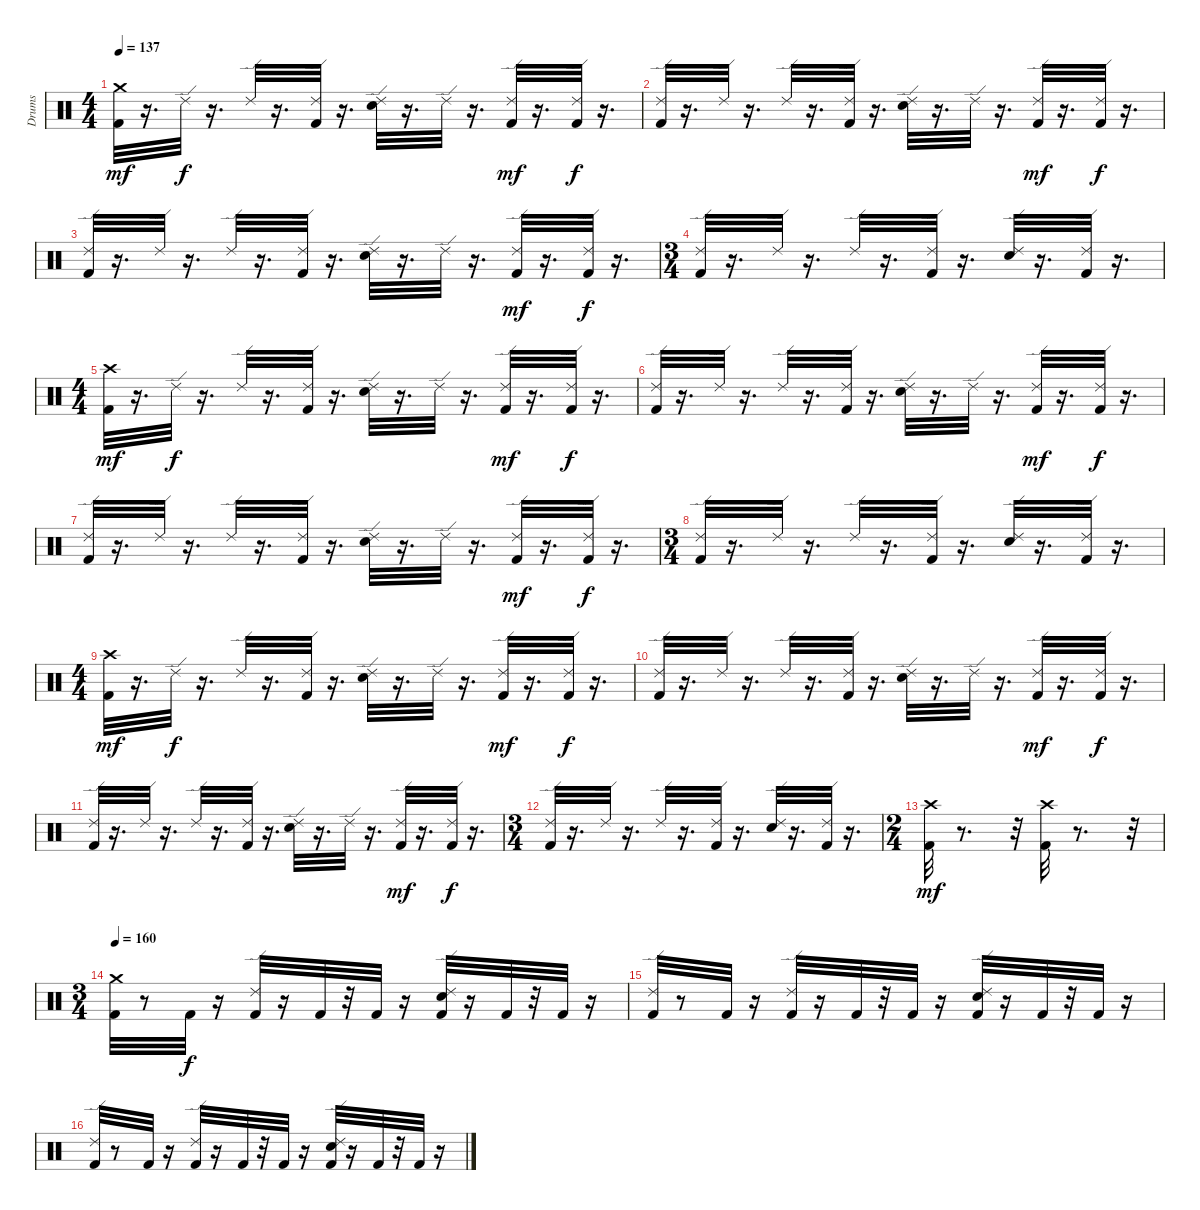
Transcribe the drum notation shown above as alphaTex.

\track ("Drums" "Drums") {instrument percussion}
\staff {score}
\articulation defaults
\ts (4 4)
\tempo 137
\clef neutral
\ks c
("Kick (hit) 2" "Crash medium (hit)").32{dy mf} r.16{d} "Ride (edge) 2".32{dy f} r.16{d} "Ride (edge) 2".32 r.16{d} ("Kick (hit) 2" "Ride (edge) 2").32 r.16{d} ("Snare (hit) 2" "Ride (edge) 2").32 r.16{d} "Ride (edge) 2".32 r.16{d} ("Kick (hit) 2" "Ride (edge) 2").32{dy mf} r.16{d} ("Kick (hit) 2" "Ride (edge) 2").32{dy f} r.16{d} |
("Kick (hit) 2" "Ride (edge) 2").32 r.16{d} "Ride (edge) 2".32 r.16{d} "Ride (edge) 2".32 r.16{d} ("Kick (hit) 2" "Ride (edge) 2").32 r.16{d} ("Snare (hit) 2" "Ride (edge) 2").32 r.16{d} "Ride (edge) 2".32 r.16{d} ("Kick (hit) 2" "Ride (edge) 2").32{dy mf} r.16{d} ("Kick (hit) 2" "Ride (edge) 2").32{dy f} r.16{d} |
("Kick (hit) 2" "Ride (edge) 2").32 r.16{d} "Ride (edge) 2".32 r.16{d} "Ride (edge) 2".32 r.16{d} ("Kick (hit) 2" "Ride (edge) 2").32 r.16{d} ("Snare (hit) 2" "Ride (edge) 2").32 r.16{d} "Ride (edge) 2".32 r.16{d} ("Kick (hit) 2" "Ride (edge) 2").32{dy mf} r.16{d} ("Kick (hit) 2" "Ride (edge) 2").32{dy f} r.16{d} |
\ts (3 4)
("Kick (hit) 2" "Ride (edge) 2").32 r.16{d} "Ride (edge) 2".32 r.16{d} "Ride (edge) 2".32 r.16{d} ("Kick (hit) 2" "Ride (edge) 2").32 r.16{d} ("Snare (hit) 2" "Ride (edge) 2").32 r.16{d} ("Kick (hit) 2" "Ride (edge) 2").32 r.16{d} |
\ts (4 4)
("Kick (hit) 2" "Crash high (hit)").32{dy mf} r.16{d} "Ride (edge) 2".32{dy f} r.16{d} "Ride (edge) 2".32 r.16{d} ("Kick (hit) 2" "Ride (edge) 2").32 r.16{d} ("Snare (hit) 2" "Ride (edge) 2").32 r.16{d} "Ride (edge) 2".32 r.16{d} ("Kick (hit) 2" "Ride (edge) 2").32{dy mf} r.16{d} ("Kick (hit) 2" "Ride (edge) 2").32{dy f} r.16{d} |
("Kick (hit) 2" "Ride (edge) 2").32 r.16{d} "Ride (edge) 2".32 r.16{d} "Ride (edge) 2".32 r.16{d} ("Kick (hit) 2" "Ride (edge) 2").32 r.16{d} ("Snare (hit) 2" "Ride (edge) 2").32 r.16{d} "Ride (edge) 2".32 r.16{d} ("Kick (hit) 2" "Ride (edge) 2").32{dy mf} r.16{d} ("Kick (hit) 2" "Ride (edge) 2").32{dy f} r.16{d} |
("Kick (hit) 2" "Ride (edge) 2").32 r.16{d} "Ride (edge) 2".32 r.16{d} "Ride (edge) 2".32 r.16{d} ("Kick (hit) 2" "Ride (edge) 2").32 r.16{d} ("Snare (hit) 2" "Ride (edge) 2").32 r.16{d} "Ride (edge) 2".32 r.16{d} ("Kick (hit) 2" "Ride (edge) 2").32{dy mf} r.16{d} ("Kick (hit) 2" "Ride (edge) 2").32{dy f} r.16{d} |
\ts (3 4)
("Kick (hit) 2" "Ride (edge) 2").32 r.16{d} "Ride (edge) 2".32 r.16{d} "Ride (edge) 2".32 r.16{d} ("Kick (hit) 2" "Ride (edge) 2").32 r.16{d} ("Snare (hit) 2" "Ride (edge) 2").32 r.16{d} ("Kick (hit) 2" "Ride (edge) 2").32 r.16{d} |
\ts (4 4)
("Kick (hit) 2" "Crash high (hit)").32{dy mf} r.16{d} "Ride (edge) 2".32{dy f} r.16{d} "Ride (edge) 2".32 r.16{d} ("Kick (hit) 2" "Ride (edge) 2").32 r.16{d} ("Snare (hit) 2" "Ride (edge) 2").32 r.16{d} "Ride (edge) 2".32 r.16{d} ("Kick (hit) 2" "Ride (edge) 2").32{dy mf} r.16{d} ("Kick (hit) 2" "Ride (edge) 2").32{dy f} r.16{d} |
("Kick (hit) 2" "Ride (edge) 2").32 r.16{d} "Ride (edge) 2".32 r.16{d} "Ride (edge) 2".32 r.16{d} ("Kick (hit) 2" "Ride (edge) 2").32 r.16{d} ("Snare (hit) 2" "Ride (edge) 2").32 r.16{d} "Ride (edge) 2".32 r.16{d} ("Kick (hit) 2" "Ride (edge) 2").32{dy mf} r.16{d} ("Kick (hit) 2" "Ride (edge) 2").32{dy f} r.16{d} |
("Kick (hit) 2" "Ride (edge) 2").32 r.16{d} "Ride (edge) 2".32 r.16{d} "Ride (edge) 2".32 r.16{d} ("Kick (hit) 2" "Ride (edge) 2").32 r.16{d} ("Snare (hit) 2" "Ride (edge) 2").32 r.16{d} "Ride (edge) 2".32 r.16{d} ("Kick (hit) 2" "Ride (edge) 2").32{dy mf} r.16{d} ("Kick (hit) 2" "Ride (edge) 2").32{dy f} r.16{d} |
\ts (3 4)
("Kick (hit) 2" "Ride (edge) 2").32 r.16{d} "Ride (edge) 2".32 r.16{d} "Ride (edge) 2".32 r.16{d} ("Kick (hit) 2" "Ride (edge) 2").32 r.16{d} ("Snare (hit) 2" "Ride (edge) 2").32 r.16{d} ("Kick (hit) 2" "Ride (edge) 2").32 r.16{d} |
\ts (2 4)
("Kick (hit) 2" "Crash high (hit)").32{dy mf} r.8{d} r.32 ("Kick (hit) 2" "Crash high (hit)").32 r.8{d} r.32 |
\ts (3 4)
\tempo 160
("Kick (hit) 2" "Crash medium (hit)").32 r.8 "Kick (hit) 2".32{dy f} r.16 ("Kick (hit) 2" "Ride (edge) 2").32 r.16 "Kick (hit) 2".32 r.32 "Kick (hit) 2".32 r.16 ("Kick (hit) 2" "Snare (hit) 2" "Ride (edge) 2").32 r.16 "Kick (hit) 2".32 r.32 "Kick (hit) 2".32 r.16 |
("Kick (hit) 2" "Ride (edge) 2").32 r.8 "Kick (hit) 2".32 r.16 ("Kick (hit) 2" "Ride (edge) 2").32 r.16 "Kick (hit) 2".32 r.32 "Kick (hit) 2".32 r.16 ("Kick (hit) 2" "Snare (hit) 2" "Ride (edge) 2").32 r.16 "Kick (hit) 2".32 r.32 "Kick (hit) 2".32 r.16 |
("Kick (hit) 2" "Ride (edge) 2").32 r.8 "Kick (hit) 2".32 r.16 ("Kick (hit) 2" "Ride (edge) 2").32 r.16 "Kick (hit) 2".32 r.32 "Kick (hit) 2".32 r.16 ("Kick (hit) 2" "Snare (hit) 2" "Ride (edge) 2").32 r.16 "Kick (hit) 2".32 r.32 "Kick (hit) 2".32 r.16
